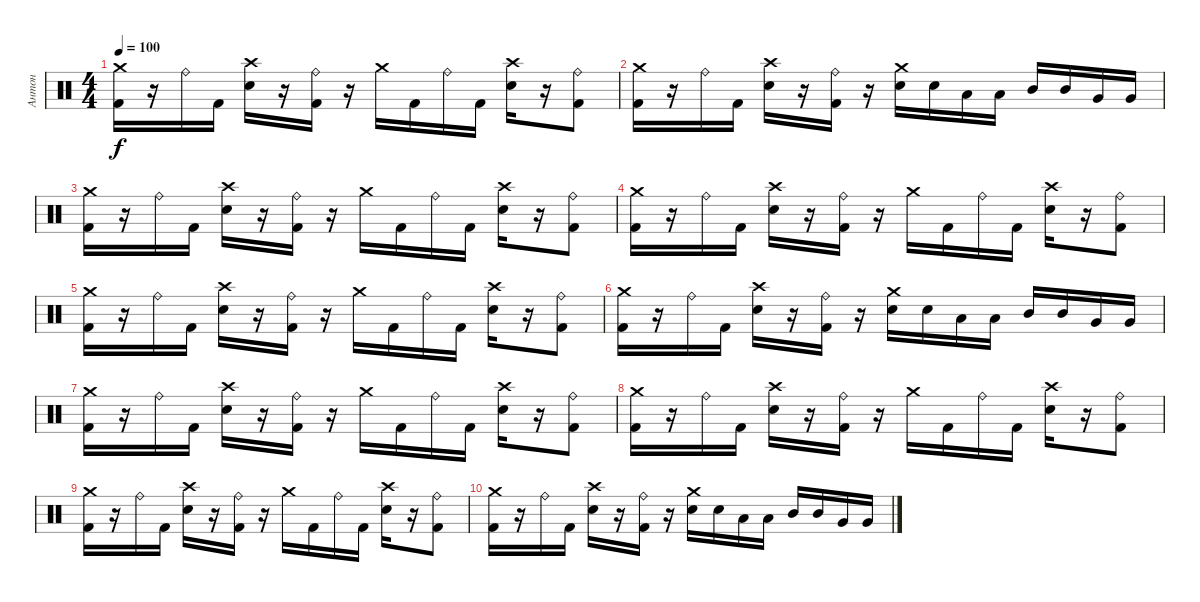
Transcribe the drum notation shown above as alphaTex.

\track ("Антон" "Антон") {instrument percussion}
\staff {score}
\articulation defaults
\ts (4 4)
\tempo 100
\clef neutral
\ks c
("Crash medium (hit)" "Kick (hit) 2").16{dy f} r.16 "Ride (bell)".16 "Kick (hit) 2".16 ("Crash high (hit)" "Electric Snare (hit)").16 r.16 ("Ride (bell)" "Kick (hit) 2").16 r.16 "Crash medium (hit)".16 "Kick (hit) 2".16 "Ride (bell)".16 "Kick (hit) 2".16 ("Crash high (hit)" "Electric Snare (hit)").16 r.16 ("Ride (bell)" "Kick (hit) 2").8 |
("Crash medium (hit)" "Kick (hit) 2").16 r.16 "Ride (bell)".16 "Kick (hit) 2".16 ("Crash high (hit)" "Electric Snare (hit)").16 r.16 ("Ride (bell)" "Kick (hit) 2").16 r.16 ("Crash medium (hit)" "Electric Snare (hit)").16 "Electric Snare (hit)".16 "Low Tom (hit)".16 "Low Tom (hit)".16 "Mid Tom (hit)".16 "Mid Tom (hit)".16 "Very Low Tom (hit)".16 "Very Low Tom (hit)".16 |
("Crash medium (hit)" "Kick (hit) 2").16 r.16 "Ride (bell)".16 "Kick (hit) 2".16 ("Crash high (hit)" "Electric Snare (hit)").16 r.16 ("Ride (bell)" "Kick (hit) 2").16 r.16 "Crash medium (hit)".16 "Kick (hit) 2".16 "Ride (bell)".16 "Kick (hit) 2".16 ("Crash high (hit)" "Electric Snare (hit)").16 r.16 ("Ride (bell)" "Kick (hit) 2").8 |
("Crash medium (hit)" "Kick (hit) 2").16 r.16 "Ride (bell)".16 "Kick (hit) 2".16 ("Crash high (hit)" "Electric Snare (hit)").16 r.16 ("Ride (bell)" "Kick (hit) 2").16 r.16 "Crash medium (hit)".16 "Kick (hit) 2".16 "Ride (bell)".16 "Kick (hit) 2".16 ("Crash high (hit)" "Electric Snare (hit)").16 r.16 ("Ride (bell)" "Kick (hit) 2").8 |
("Crash medium (hit)" "Kick (hit) 2").16 r.16 "Ride (bell)".16 "Kick (hit) 2".16 ("Crash high (hit)" "Electric Snare (hit)").16 r.16 ("Ride (bell)" "Kick (hit) 2").16 r.16 "Crash medium (hit)".16 "Kick (hit) 2".16 "Ride (bell)".16 "Kick (hit) 2".16 ("Crash high (hit)" "Electric Snare (hit)").16 r.16 ("Ride (bell)" "Kick (hit) 2").8 |
("Crash medium (hit)" "Kick (hit) 2").16 r.16 "Ride (bell)".16 "Kick (hit) 2".16 ("Crash high (hit)" "Electric Snare (hit)").16 r.16 ("Ride (bell)" "Kick (hit) 2").16 r.16 ("Crash medium (hit)" "Electric Snare (hit)").16 "Electric Snare (hit)".16 "Low Tom (hit)".16 "Low Tom (hit)".16 "Mid Tom (hit)".16 "Mid Tom (hit)".16 "Very Low Tom (hit)".16 "Very Low Tom (hit)".16 |
("Crash medium (hit)" "Kick (hit) 2").16 r.16 "Ride (bell)".16 "Kick (hit) 2".16 ("Crash high (hit)" "Electric Snare (hit)").16 r.16 ("Ride (bell)" "Kick (hit) 2").16 r.16 "Crash medium (hit)".16 "Kick (hit) 2".16 "Ride (bell)".16 "Kick (hit) 2".16 ("Crash high (hit)" "Electric Snare (hit)").16 r.16 ("Ride (bell)" "Kick (hit) 2").8 |
("Crash medium (hit)" "Kick (hit) 2").16 r.16 "Ride (bell)".16 "Kick (hit) 2".16 ("Crash high (hit)" "Electric Snare (hit)").16 r.16 ("Ride (bell)" "Kick (hit) 2").16 r.16 "Crash medium (hit)".16 "Kick (hit) 2".16 "Ride (bell)".16 "Kick (hit) 2".16 ("Crash high (hit)" "Electric Snare (hit)").16 r.16 ("Ride (bell)" "Kick (hit) 2").8 |
("Crash medium (hit)" "Kick (hit) 2").16 r.16 "Ride (bell)".16 "Kick (hit) 2".16 ("Crash high (hit)" "Electric Snare (hit)").16 r.16 ("Ride (bell)" "Kick (hit) 2").16 r.16 "Crash medium (hit)".16 "Kick (hit) 2".16 "Ride (bell)".16 "Kick (hit) 2".16 ("Crash high (hit)" "Electric Snare (hit)").16 r.16 ("Ride (bell)" "Kick (hit) 2").8 |
("Crash medium (hit)" "Kick (hit) 2").16 r.16 "Ride (bell)".16 "Kick (hit) 2".16 ("Crash high (hit)" "Electric Snare (hit)").16 r.16 ("Ride (bell)" "Kick (hit) 2").16 r.16 ("Crash medium (hit)" "Electric Snare (hit)").16 "Electric Snare (hit)".16 "Low Tom (hit)".16 "Low Tom (hit)".16 "Mid Tom (hit)".16 "Mid Tom (hit)".16 "Very Low Tom (hit)".16 "Very Low Tom (hit)".16
